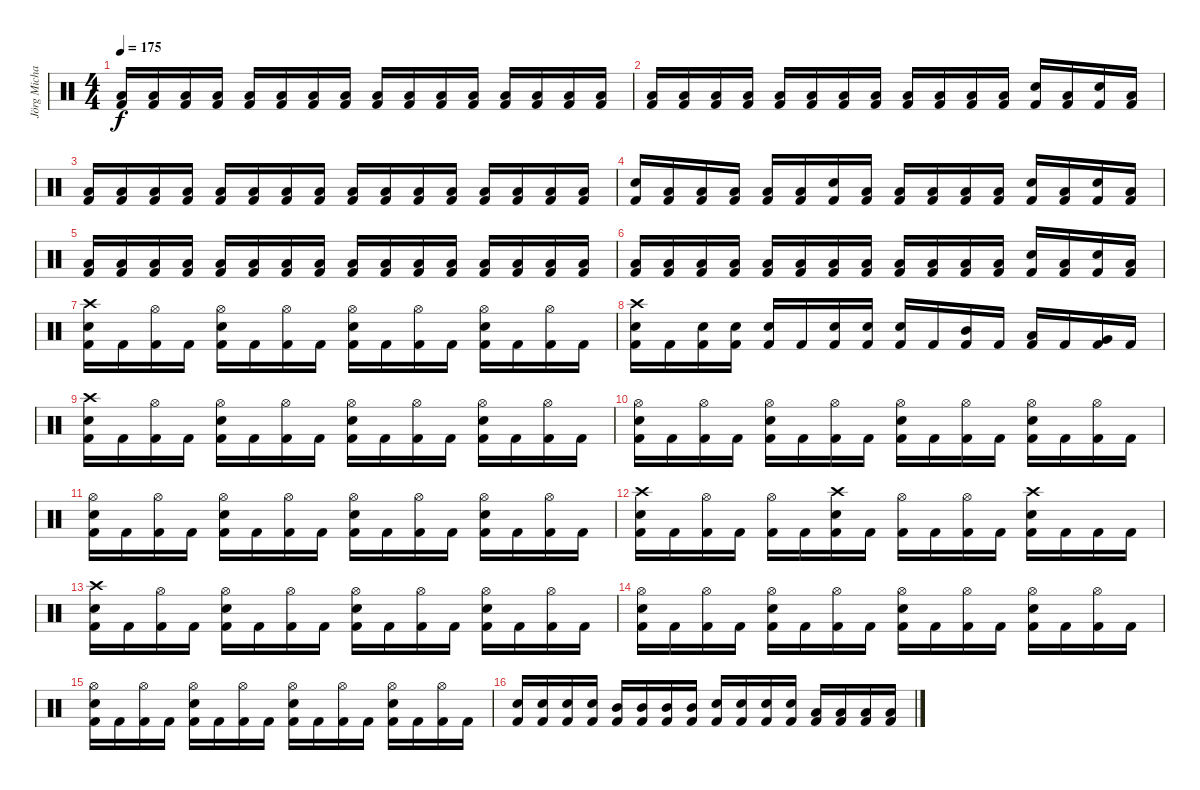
\track ("Jörg Michael" "Jörg Micha") {instrument percussion}
\staff {score}
\articulation defaults
\ts (4 4)
\tempo 175
\clef neutral
\ks c
("Kick (hit) 2" "Low Tom (hit)").16{dy f} ("Kick (hit) 2" "Low Tom (hit)").16 ("Kick (hit) 2" "Low Tom (hit)").16 ("Kick (hit) 2" "Low Tom (hit)").16 ("Kick (hit) 2" "Low Tom (hit)").16 ("Kick (hit) 2" "Low Tom (hit)").16 ("Kick (hit) 2" "Low Tom (hit)").16 ("Kick (hit) 2" "Low Tom (hit)").16 ("Kick (hit) 2" "Low Tom (hit)").16 ("Kick (hit) 2" "Low Tom (hit)").16 ("Kick (hit) 2" "Low Tom (hit)").16 ("Kick (hit) 2" "Low Tom (hit)").16 ("Kick (hit) 2" "Low Tom (hit)").16 ("Kick (hit) 2" "Low Tom (hit)").16 ("Kick (hit) 2" "Low Tom (hit)").16 ("Kick (hit) 2" "Low Tom (hit)").16 |
("Kick (hit) 2" "Low Tom (hit)").16 ("Kick (hit) 2" "Low Tom (hit)").16 ("Kick (hit) 2" "Low Tom (hit)").16 ("Kick (hit) 2" "Low Tom (hit)").16 ("Kick (hit) 2" "Low Tom (hit)").16 ("Kick (hit) 2" "Low Tom (hit)").16 ("Kick (hit) 2" "Low Tom (hit)").16 ("Kick (hit) 2" "Low Tom (hit)").16 ("Kick (hit) 2" "Low Tom (hit)").16 ("Kick (hit) 2" "Low Tom (hit)").16 ("Kick (hit) 2" "Low Tom (hit)").16 ("Kick (hit) 2" "Low Tom (hit)").16 ("Kick (hit) 2" "Electric Snare (hit)").16 ("Kick (hit) 2" "Low Tom (hit)").16 ("Kick (hit) 2" "Electric Snare (hit)").16 ("Kick (hit) 2" "Low Tom (hit)").16 |
("Kick (hit) 2" "Low Tom (hit)").16 ("Kick (hit) 2" "Low Tom (hit)").16 ("Kick (hit) 2" "Low Tom (hit)").16 ("Kick (hit) 2" "Low Tom (hit)").16 ("Kick (hit) 2" "Low Tom (hit)").16 ("Kick (hit) 2" "Low Tom (hit)").16 ("Kick (hit) 2" "Low Tom (hit)").16 ("Kick (hit) 2" "Low Tom (hit)").16 ("Kick (hit) 2" "Low Tom (hit)").16 ("Kick (hit) 2" "Low Tom (hit)").16 ("Kick (hit) 2" "Low Tom (hit)").16 ("Kick (hit) 2" "Low Tom (hit)").16 ("Kick (hit) 2" "Low Tom (hit)").16 ("Kick (hit) 2" "Low Tom (hit)").16 ("Kick (hit) 2" "Low Tom (hit)").16 ("Kick (hit) 2" "Low Tom (hit)").16 |
("Kick (hit) 2" "Electric Snare (hit)").16 ("Kick (hit) 2" "Low Tom (hit)").16 ("Kick (hit) 2" "Low Tom (hit)").16 ("Kick (hit) 2" "Low Tom (hit)").16 ("Kick (hit) 2" "Low Tom (hit)").16 ("Kick (hit) 2" "Low Tom (hit)").16 ("Kick (hit) 2" "Electric Snare (hit)").16 ("Kick (hit) 2" "Low Tom (hit)").16 ("Kick (hit) 2" "Low Tom (hit)").16 ("Kick (hit) 2" "Low Tom (hit)").16 ("Kick (hit) 2" "Low Tom (hit)").16 ("Kick (hit) 2" "Low Tom (hit)").16 ("Kick (hit) 2" "Electric Snare (hit)").16 ("Kick (hit) 2" "Low Tom (hit)").16 ("Kick (hit) 2" "Electric Snare (hit)").16 ("Kick (hit) 2" "Low Tom (hit)").16 |
("Kick (hit) 2" "Low Tom (hit)").16 ("Kick (hit) 2" "Low Tom (hit)").16 ("Kick (hit) 2" "Low Tom (hit)").16 ("Kick (hit) 2" "Low Tom (hit)").16 ("Kick (hit) 2" "Low Tom (hit)").16 ("Kick (hit) 2" "Low Tom (hit)").16 ("Kick (hit) 2" "Low Tom (hit)").16 ("Kick (hit) 2" "Low Tom (hit)").16 ("Kick (hit) 2" "Low Tom (hit)").16 ("Kick (hit) 2" "Low Tom (hit)").16 ("Kick (hit) 2" "Low Tom (hit)").16 ("Kick (hit) 2" "Low Tom (hit)").16 ("Kick (hit) 2" "Low Tom (hit)").16 ("Kick (hit) 2" "Low Tom (hit)").16 ("Kick (hit) 2" "Low Tom (hit)").16 ("Kick (hit) 2" "Low Tom (hit)").16 |
("Kick (hit) 2" "Low Tom (hit)").16 ("Kick (hit) 2" "Low Tom (hit)").16 ("Kick (hit) 2" "Low Tom (hit)").16 ("Kick (hit) 2" "Low Tom (hit)").16 ("Kick (hit) 2" "Low Tom (hit)").16 ("Kick (hit) 2" "Low Tom (hit)").16 ("Kick (hit) 2" "Low Tom (hit)").16 ("Kick (hit) 2" "Low Tom (hit)").16 ("Kick (hit) 2" "Low Tom (hit)").16 ("Kick (hit) 2" "Low Tom (hit)").16 ("Kick (hit) 2" "Low Tom (hit)").16 ("Kick (hit) 2" "Low Tom (hit)").16 ("Kick (hit) 2" "Electric Snare (hit)").16 ("Kick (hit) 2" "Low Tom (hit)").16 ("Kick (hit) 2" "Electric Snare (hit)").16 ("Kick (hit) 2" "Low Tom (hit)").16 |
("Kick (hit) 2" "Electric Snare (hit)" "Crash high (hit)").16 "Kick (hit) 2".16 ("Kick (hit) 2" "Hi-Hat (open)").16 "Kick (hit) 2".16 ("Kick (hit) 2" "Electric Snare (hit)" "Hi-Hat (open)").16 "Kick (hit) 2".16 ("Kick (hit) 2" "Hi-Hat (open)").16 "Kick (hit) 2".16 ("Kick (hit) 2" "Electric Snare (hit)" "Hi-Hat (open)").16 "Kick (hit) 2".16 ("Kick (hit) 2" "Hi-Hat (open)").16 "Kick (hit) 2".16 ("Kick (hit) 2" "Electric Snare (hit)" "Hi-Hat (open)").16 "Kick (hit) 2".16 ("Kick (hit) 2" "Hi-Hat (open)").16 "Kick (hit) 2".16 |
("Kick (hit) 2" "Electric Snare (hit)" "Crash high (hit)").16 "Kick (hit) 2".16 ("Kick (hit) 2" "Electric Snare (hit)").16 ("Kick (hit) 2" "Electric Snare (hit)").16 ("Kick (hit) 2" "Electric Snare (hit)").16 "Kick (hit) 2".16 ("Kick (hit) 2" "Electric Snare (hit)").16 ("Kick (hit) 2" "Electric Snare (hit)").16 ("Kick (hit) 2" "Electric Snare (hit)").16 "Kick (hit) 2".16 ("Kick (hit) 2" "Mid Tom (hit)").16 "Kick (hit) 2".16 ("Kick (hit) 2" "Low Tom (hit)").16 "Kick (hit) 2".16 ("Kick (hit) 2" "Very Low Tom (hit)").16 "Kick (hit) 2".16 |
("Kick (hit) 2" "Electric Snare (hit)" "Crash high (hit)").16 "Kick (hit) 2".16 ("Kick (hit) 2" "Hi-Hat (open)").16 "Kick (hit) 2".16 ("Kick (hit) 2" "Electric Snare (hit)" "Hi-Hat (open)").16 "Kick (hit) 2".16 ("Kick (hit) 2" "Hi-Hat (open)").16 "Kick (hit) 2".16 ("Kick (hit) 2" "Electric Snare (hit)" "Hi-Hat (open)").16 "Kick (hit) 2".16 ("Kick (hit) 2" "Hi-Hat (open)").16 "Kick (hit) 2".16 ("Kick (hit) 2" "Electric Snare (hit)" "Hi-Hat (open)").16 "Kick (hit) 2".16 ("Kick (hit) 2" "Hi-Hat (open)").16 "Kick (hit) 2".16 |
("Kick (hit) 2" "Electric Snare (hit)" "Hi-Hat (open)").16 "Kick (hit) 2".16 ("Kick (hit) 2" "Hi-Hat (open)").16 "Kick (hit) 2".16 ("Kick (hit) 2" "Electric Snare (hit)" "Hi-Hat (open)").16 "Kick (hit) 2".16 ("Kick (hit) 2" "Hi-Hat (open)").16 "Kick (hit) 2".16 ("Kick (hit) 2" "Electric Snare (hit)" "Hi-Hat (open)").16 "Kick (hit) 2".16 ("Kick (hit) 2" "Hi-Hat (open)").16 "Kick (hit) 2".16 ("Kick (hit) 2" "Electric Snare (hit)" "Hi-Hat (open)").16 "Kick (hit) 2".16 ("Kick (hit) 2" "Hi-Hat (open)").16 "Kick (hit) 2".16 |
("Kick (hit) 2" "Electric Snare (hit)" "Hi-Hat (open)").16 "Kick (hit) 2".16 ("Kick (hit) 2" "Hi-Hat (open)").16 "Kick (hit) 2".16 ("Kick (hit) 2" "Electric Snare (hit)" "Hi-Hat (open)").16 "Kick (hit) 2".16 ("Kick (hit) 2" "Hi-Hat (open)").16 "Kick (hit) 2".16 ("Kick (hit) 2" "Electric Snare (hit)" "Hi-Hat (open)").16 "Kick (hit) 2".16 ("Kick (hit) 2" "Hi-Hat (open)").16 "Kick (hit) 2".16 ("Kick (hit) 2" "Electric Snare (hit)" "Hi-Hat (open)").16 "Kick (hit) 2".16 ("Kick (hit) 2" "Hi-Hat (open)").16 "Kick (hit) 2".16 |
("Kick (hit) 2" "Electric Snare (hit)" "Crash high (hit)").16 "Kick (hit) 2".16 ("Kick (hit) 2" "Hi-Hat (open)").16 "Kick (hit) 2".16 ("Kick (hit) 2" "Hi-Hat (open)").16 "Kick (hit) 2".16 ("Kick (hit) 2" "Electric Snare (hit)" "Crash high (hit)").16 "Kick (hit) 2".16 ("Kick (hit) 2" "Hi-Hat (open)").16 "Kick (hit) 2".16 ("Kick (hit) 2" "Hi-Hat (open)").16 "Kick (hit) 2".16 ("Kick (hit) 2" "Electric Snare (hit)" "Crash high (hit)").16 "Kick (hit) 2".16 "Kick (hit) 2".16 "Kick (hit) 2".16 |
("Kick (hit) 2" "Electric Snare (hit)" "Crash high (hit)").16 "Kick (hit) 2".16 ("Kick (hit) 2" "Hi-Hat (open)").16 "Kick (hit) 2".16 ("Kick (hit) 2" "Electric Snare (hit)" "Hi-Hat (open)").16 "Kick (hit) 2".16 ("Kick (hit) 2" "Hi-Hat (open)").16 "Kick (hit) 2".16 ("Kick (hit) 2" "Electric Snare (hit)" "Hi-Hat (open)").16 "Kick (hit) 2".16 ("Kick (hit) 2" "Hi-Hat (open)").16 "Kick (hit) 2".16 ("Kick (hit) 2" "Electric Snare (hit)" "Hi-Hat (open)").16 "Kick (hit) 2".16 ("Kick (hit) 2" "Hi-Hat (open)").16 "Kick (hit) 2".16 |
("Kick (hit) 2" "Electric Snare (hit)" "Hi-Hat (open)").16 "Kick (hit) 2".16 ("Kick (hit) 2" "Hi-Hat (open)").16 "Kick (hit) 2".16 ("Kick (hit) 2" "Electric Snare (hit)" "Hi-Hat (open)").16 "Kick (hit) 2".16 ("Kick (hit) 2" "Hi-Hat (open)").16 "Kick (hit) 2".16 ("Kick (hit) 2" "Electric Snare (hit)" "Hi-Hat (open)").16 "Kick (hit) 2".16 ("Kick (hit) 2" "Hi-Hat (open)").16 "Kick (hit) 2".16 ("Kick (hit) 2" "Electric Snare (hit)" "Hi-Hat (open)").16 "Kick (hit) 2".16 ("Kick (hit) 2" "Hi-Hat (open)").16 "Kick (hit) 2".16 |
("Kick (hit) 2" "Electric Snare (hit)" "Hi-Hat (open)").16 "Kick (hit) 2".16 ("Kick (hit) 2" "Hi-Hat (open)").16 "Kick (hit) 2".16 ("Kick (hit) 2" "Electric Snare (hit)" "Hi-Hat (open)").16 "Kick (hit) 2".16 ("Kick (hit) 2" "Hi-Hat (open)").16 "Kick (hit) 2".16 ("Kick (hit) 2" "Electric Snare (hit)" "Hi-Hat (open)").16 "Kick (hit) 2".16 ("Kick (hit) 2" "Hi-Hat (open)").16 "Kick (hit) 2".16 ("Kick (hit) 2" "Electric Snare (hit)" "Hi-Hat (open)").16 "Kick (hit) 2".16 ("Kick (hit) 2" "Hi-Hat (open)").16 "Kick (hit) 2".16 |
("Kick (hit) 2" "Electric Snare (hit)").16 ("Kick (hit) 2" "Electric Snare (hit)").16 ("Kick (hit) 2" "Electric Snare (hit)").16 ("Kick (hit) 2" "Electric Snare (hit)").16 ("Kick (hit) 2" "Mid Tom (hit)").16 ("Kick (hit) 2" "Mid Tom (hit)").16 ("Kick (hit) 2" "Mid Tom (hit)").16 ("Kick (hit) 2" "Mid Tom (hit)").16 ("Kick (hit) 2" "Electric Snare (hit)").16 ("Kick (hit) 2" "Electric Snare (hit)").16 ("Kick (hit) 2" "Electric Snare (hit)").16 ("Kick (hit) 2" "Electric Snare (hit)").16 ("Kick (hit) 2" "Low Tom (hit)").16 ("Kick (hit) 2" "Low Tom (hit)").16 ("Kick (hit) 2" "Low Tom (hit)").16 ("Kick (hit) 2" "Low Tom (hit)").16
